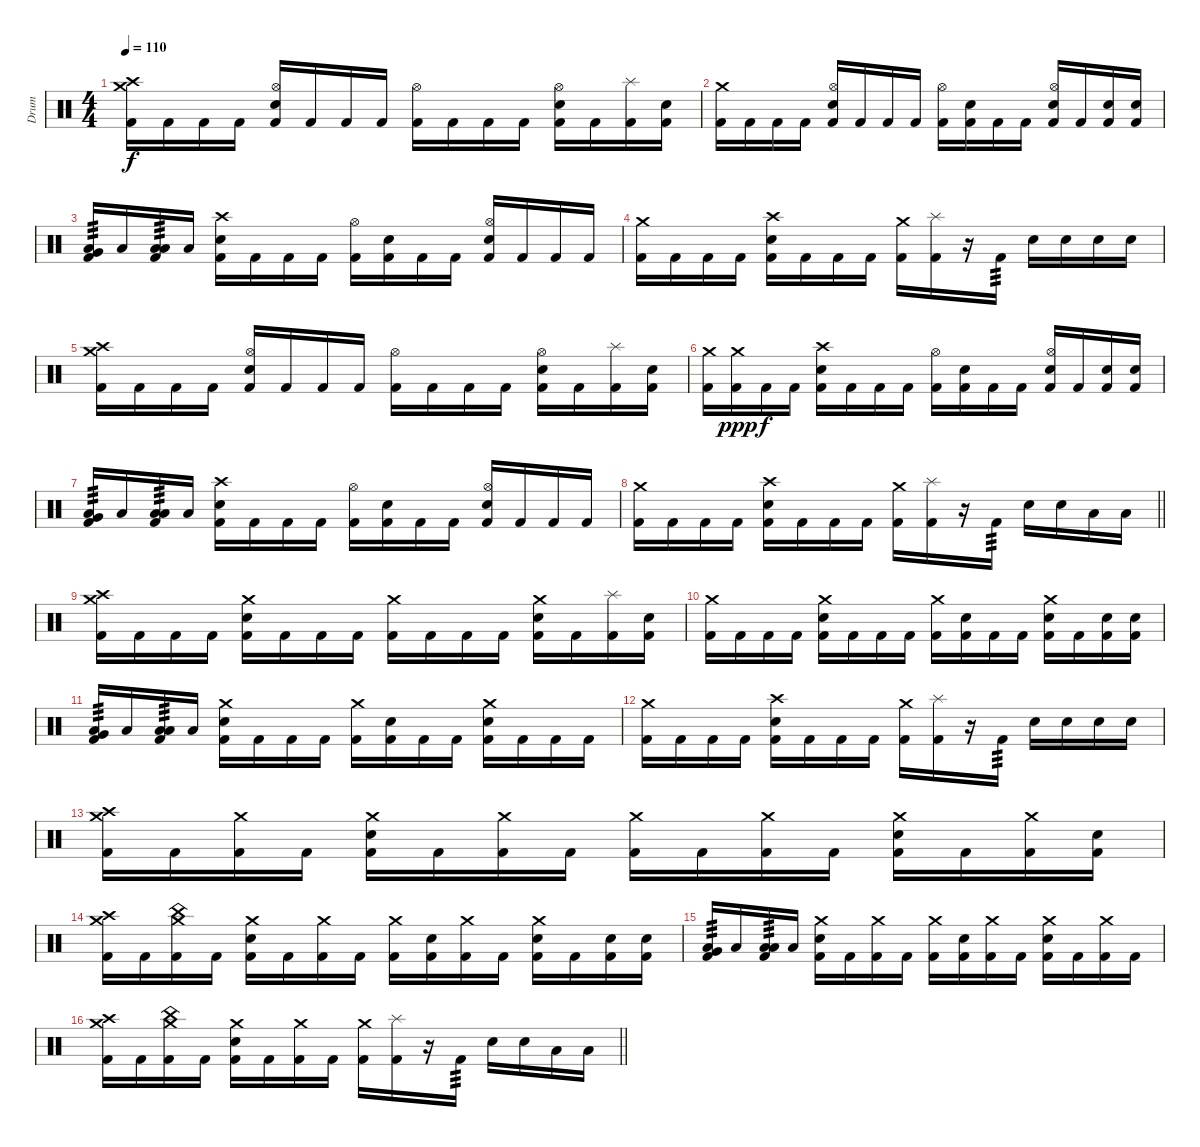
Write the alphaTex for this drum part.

\track ("Drum" "Drum") {instrument percussion}
\staff {score}
\articulation defaults
\ts (4 4)
\section ("" "")
\tempo 110
\clef neutral
\ks c
("Crash medium (hit)" "Crash high (hit)" "Kick (hit) 2").16{dy f} "Kick (hit) 2".16 "Kick (hit) 2".16 "Kick (hit) 2".16 ("Hi-Hat (open)" "Snare (hit) 2" "Kick (hit) 2").16 "Kick (hit) 2".16 "Kick (hit) 2".16 "Kick (hit) 2".16 ("Hi-Hat (open)" "Kick (hit) 2").16 "Kick (hit) 2".16 "Kick (hit) 2".16 "Kick (hit) 2".16 ("Hi-Hat (open)" "Snare (hit) 2" "Kick (hit) 2").16 "Kick (hit) 2".16 ("Splash (hit)" "Kick (hit) 2").16 ("Snare (hit) 2" "Kick (hit) 2").16 |
("Crash medium (hit)" "Kick (hit) 2").16 "Kick (hit) 2".16 "Kick (hit) 2".16 "Kick (hit) 2".16 ("Hi-Hat (open)" "Snare (hit) 2" "Kick (hit) 2").16 "Kick (hit) 2".16 "Kick (hit) 2".16 "Kick (hit) 2".16 ("Hi-Hat (open)" "Kick (hit) 2").16 ("Snare (hit) 2" "Kick (hit) 2").16 "Kick (hit) 2".16 "Kick (hit) 2".16 ("Hi-Hat (open)" "Snare (hit) 2" "Kick (hit) 2").16 "Kick (hit) 2".16 ("Snare (hit) 2" "Kick (hit) 2").16 ("Snare (hit) 2" "Kick (hit) 2").16 |
("Low Floor Tom (hit)" "Very Low Tom (hit)" "Kick (hit) 2").16{tp 3} "Low Floor Tom (hit)".16 ("Low Floor Tom (hit)" "Low Tom (hit)" "Kick (hit) 2").16{tp 3} "Low Floor Tom (hit)".16 ("Crash high (hit)" "Snare (hit) 2" "Kick (hit) 2").16 "Kick (hit) 2".16 "Kick (hit) 2".16 "Kick (hit) 2".16 ("Hi-Hat (open)" "Kick (hit) 2").16 ("Snare (hit) 2" "Kick (hit) 2").16 "Kick (hit) 2".16 "Kick (hit) 2".16 ("Hi-Hat (open)" "Snare (hit) 2" "Kick (hit) 2").16 "Kick (hit) 2".16 "Kick (hit) 2".16 "Kick (hit) 2".16 |
("Crash medium (hit)" "Kick (hit) 2").16 "Kick (hit) 2".16 "Kick (hit) 2".16 "Kick (hit) 2".16 ("Crash high (hit)" "Snare (hit) 2" "Kick (hit) 2").16 "Kick (hit) 2".16 "Kick (hit) 2".16 "Kick (hit) 2".16 ("Crash medium (hit)" "Kick (hit) 2").16 ("Splash (hit)" "Kick (hit) 2").16 r.16 "Kick (hit) 2".16{tp 3} "Snare (hit) 2".16 "Snare (hit) 2".16 "Snare (hit) 2".16 "Snare (hit) 2".16 |
("Crash medium (hit)" "Crash high (hit)" "Kick (hit) 2").16 "Kick (hit) 2".16 "Kick (hit) 2".16 "Kick (hit) 2".16 ("Hi-Hat (open)" "Snare (hit) 2" "Kick (hit) 2").16 "Kick (hit) 2".16 "Kick (hit) 2".16 "Kick (hit) 2".16 ("Hi-Hat (open)" "Kick (hit) 2").16 "Kick (hit) 2".16 "Kick (hit) 2".16 "Kick (hit) 2".16 ("Hi-Hat (open)" "Snare (hit) 2" "Kick (hit) 2").16 "Kick (hit) 2".16 ("Splash (hit)" "Kick (hit) 2").16 ("Snare (hit) 2" "Kick (hit) 2").16 |
("Crash medium (hit)" "Kick (hit) 2").16 ("Crash medium (hit)" "Kick (hit) 2").16{dy ppp} "Kick (hit) 2".16{dy f} "Kick (hit) 2".16 ("Crash high (hit)" "Snare (hit) 2" "Kick (hit) 2").16 "Kick (hit) 2".16 "Kick (hit) 2".16 "Kick (hit) 2".16 ("Hi-Hat (open)" "Kick (hit) 2").16 ("Snare (hit) 2" "Kick (hit) 2").16 "Kick (hit) 2".16 "Kick (hit) 2".16 ("Hi-Hat (open)" "Snare (hit) 2" "Kick (hit) 2").16 "Kick (hit) 2".16 ("Snare (hit) 2" "Kick (hit) 2").16 ("Snare (hit) 2" "Kick (hit) 2").16 |
("Low Floor Tom (hit)" "Very Low Tom (hit)" "Kick (hit) 2").16{tp 3} "Low Floor Tom (hit)".16 ("Low Floor Tom (hit)" "Low Tom (hit)" "Kick (hit) 2").16{tp 3} "Low Floor Tom (hit)".16 ("Crash high (hit)" "Snare (hit) 2" "Kick (hit) 2").16 "Kick (hit) 2".16 "Kick (hit) 2".16 "Kick (hit) 2".16 ("Hi-Hat (open)" "Kick (hit) 2").16 ("Snare (hit) 2" "Kick (hit) 2").16 "Kick (hit) 2".16 "Kick (hit) 2".16 ("Hi-Hat (open)" "Snare (hit) 2" "Kick (hit) 2").16 "Kick (hit) 2".16 "Kick (hit) 2".16 "Kick (hit) 2".16 |
\barLineRight lightlight
("Crash medium (hit)" "Kick (hit) 2").16 "Kick (hit) 2".16 "Kick (hit) 2".16 "Kick (hit) 2".16 ("Crash high (hit)" "Snare (hit) 2" "Kick (hit) 2").16 "Kick (hit) 2".16 "Kick (hit) 2".16 "Kick (hit) 2".16 ("Crash medium (hit)" "Kick (hit) 2").16 ("Splash (hit)" "Kick (hit) 2").16 r.16 "Kick (hit) 2".16{tp 3} "Snare (hit) 2".16 "Snare (hit) 2".16 "Low Floor Tom (hit)".16 "Low Floor Tom (hit)".16 |
("Crash medium (hit)" "Crash high (hit)" "Kick (hit) 2").16 "Kick (hit) 2".16 "Kick (hit) 2".16 "Kick (hit) 2".16 ("Crash medium (hit)" "Snare (hit) 2" "Kick (hit) 2").16 "Kick (hit) 2".16 "Kick (hit) 2".16 "Kick (hit) 2".16 ("Crash medium (hit)" "Kick (hit) 2").16 "Kick (hit) 2".16 "Kick (hit) 2".16 "Kick (hit) 2".16 ("Crash medium (hit)" "Snare (hit) 2" "Kick (hit) 2").16 "Kick (hit) 2".16 ("Splash (hit)" "Kick (hit) 2").16 ("Snare (hit) 2" "Kick (hit) 2").16 |
("Crash medium (hit)" "Kick (hit) 2").16 "Kick (hit) 2".16 "Kick (hit) 2".16 "Kick (hit) 2".16 ("Crash medium (hit)" "Snare (hit) 2" "Kick (hit) 2").16 "Kick (hit) 2".16 "Kick (hit) 2".16 "Kick (hit) 2".16 ("Crash medium (hit)" "Kick (hit) 2").16 ("Snare (hit) 2" "Kick (hit) 2").16 "Kick (hit) 2".16 "Kick (hit) 2".16 ("Crash medium (hit)" "Snare (hit) 2" "Kick (hit) 2").16 "Kick (hit) 2".16 ("Snare (hit) 2" "Kick (hit) 2").16 ("Snare (hit) 2" "Kick (hit) 2").16 |
("Low Floor Tom (hit)" "Very Low Tom (hit)" "Kick (hit) 2").16{tp 3} "Low Floor Tom (hit)".16 ("Low Floor Tom (hit)" "Low Tom (hit)" "Kick (hit) 2").16{tp 3} "Low Floor Tom (hit)".16 ("Crash medium (hit)" "Snare (hit) 2" "Kick (hit) 2").16 "Kick (hit) 2".16 "Kick (hit) 2".16 "Kick (hit) 2".16 ("Crash medium (hit)" "Kick (hit) 2").16 ("Snare (hit) 2" "Kick (hit) 2").16 "Kick (hit) 2".16 "Kick (hit) 2".16 ("Crash medium (hit)" "Snare (hit) 2" "Kick (hit) 2").16 "Kick (hit) 2".16 "Kick (hit) 2".16 "Kick (hit) 2".16 |
("Crash medium (hit)" "Kick (hit) 2").16 "Kick (hit) 2".16 "Kick (hit) 2".16 "Kick (hit) 2".16 ("Crash high (hit)" "Snare (hit) 2" "Kick (hit) 2").16 "Kick (hit) 2".16 "Kick (hit) 2".16 "Kick (hit) 2".16 ("Crash medium (hit)" "Kick (hit) 2").16 ("Splash (hit)" "Kick (hit) 2").16 r.16 "Kick (hit) 2".16{tp 3} "Snare (hit) 2".16 "Snare (hit) 2".16 "Snare (hit) 2".16 "Snare (hit) 2".16 |
("Crash medium (hit)" "Crash high (hit)" "Kick (hit) 2").16 "Kick (hit) 2".16 ("Crash medium (hit)" "Kick (hit) 2").16 "Kick (hit) 2".16 ("Crash medium (hit)" "Snare (hit) 2" "Kick (hit) 2").16 "Kick (hit) 2".16 ("Crash medium (hit)" "Kick (hit) 2").16 "Kick (hit) 2".16 ("Crash medium (hit)" "Kick (hit) 2").16 "Kick (hit) 2".16 ("Crash medium (hit)" "Kick (hit) 2").16 "Kick (hit) 2".16 ("Crash medium (hit)" "Snare (hit) 2" "Kick (hit) 2").16 "Kick (hit) 2".16 ("Crash medium (hit)" "Kick (hit) 2").16 ("Snare (hit) 2" "Kick (hit) 2").16 |
("Crash medium (hit)" "Crash high (hit)" "Kick (hit) 2").16 "Kick (hit) 2".16 ("Crash medium (hit)" "China (hit)" "Kick (hit) 2").16 "Kick (hit) 2".16 ("Crash medium (hit)" "Snare (hit) 2" "Kick (hit) 2").16 "Kick (hit) 2".16 ("Crash medium (hit)" "Kick (hit) 2").16 "Kick (hit) 2".16 ("Crash medium (hit)" "Kick (hit) 2").16 ("Snare (hit) 2" "Kick (hit) 2").16 ("Crash medium (hit)" "Kick (hit) 2").16 "Kick (hit) 2".16 ("Crash medium (hit)" "Snare (hit) 2" "Kick (hit) 2").16 "Kick (hit) 2".16 ("Snare (hit) 2" "Kick (hit) 2").16 ("Snare (hit) 2" "Kick (hit) 2").16 |
("Low Floor Tom (hit)" "Very Low Tom (hit)" "Kick (hit) 2").16{tp 3} "Low Floor Tom (hit)".16 ("Low Floor Tom (hit)" "Low Tom (hit)" "Kick (hit) 2").16{tp 3} "Low Floor Tom (hit)".16 ("Crash medium (hit)" "Snare (hit) 2" "Kick (hit) 2").16 "Kick (hit) 2".16 ("Crash medium (hit)" "Kick (hit) 2").16 "Kick (hit) 2".16 ("Crash medium (hit)" "Kick (hit) 2").16 ("Snare (hit) 2" "Kick (hit) 2").16 ("Crash medium (hit)" "Kick (hit) 2").16 "Kick (hit) 2".16 ("Crash medium (hit)" "Snare (hit) 2" "Kick (hit) 2").16 "Kick (hit) 2".16 ("Crash medium (hit)" "Kick (hit) 2").16 "Kick (hit) 2".16 |
\barLineRight lightlight
("Crash medium (hit)" "Crash high (hit)" "Kick (hit) 2").16 "Kick (hit) 2".16 ("Crash medium (hit)" "China (hit)" "Kick (hit) 2").16 "Kick (hit) 2".16 ("Crash medium (hit)" "Snare (hit) 2" "Kick (hit) 2").16 "Kick (hit) 2".16 ("Crash medium (hit)" "Kick (hit) 2").16 "Kick (hit) 2".16 ("Crash medium (hit)" "Kick (hit) 2").16 ("Splash (hit)" "Kick (hit) 2").16 r.16 "Kick (hit) 2".16{tp 3} "Snare (hit) 2".16 "Snare (hit) 2".16 "Low Floor Tom (hit)".16 "Low Floor Tom (hit)".16
